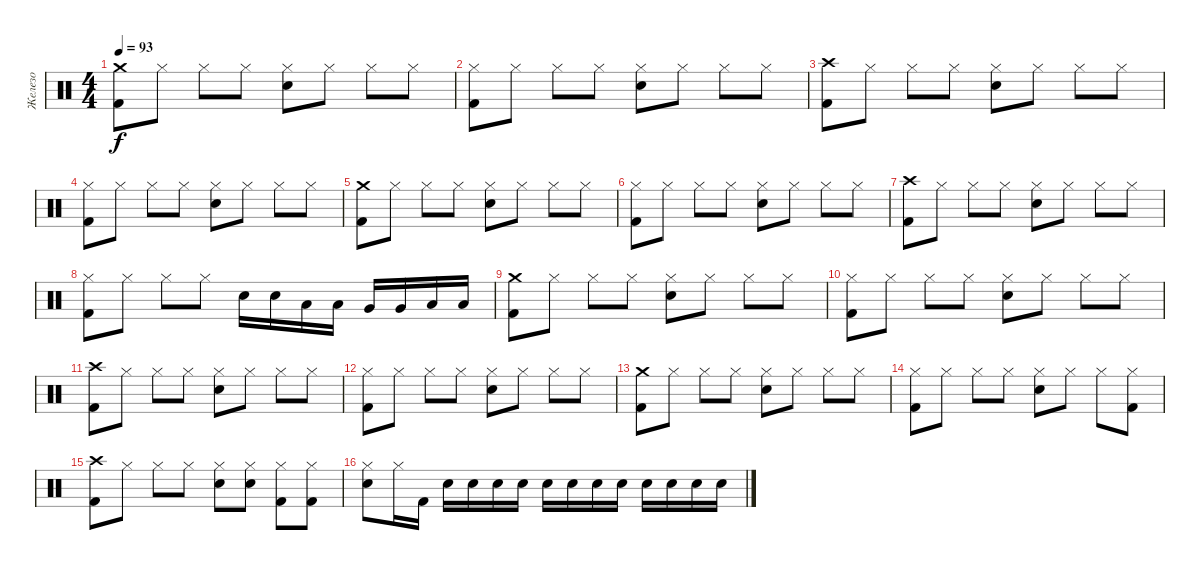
\track ("Железо" "Железо") {instrument percussion}
\staff {score}
\articulation defaults
\ts (4 4)
\tempo 93
\clef neutral
\ks c
("Crash medium (hit)" "Kick (hit) 2").8{dy f} "Hi-Hat (closed)".8 "Hi-Hat (closed)".8 "Hi-Hat (closed)".8 ("Hi-Hat (closed)" "Electric Snare (hit)").8 "Hi-Hat (closed)".8 "Hi-Hat (closed)".8 "Hi-Hat (closed)".8 |
("Hi-Hat (closed)" "Kick (hit) 2").8 "Hi-Hat (closed)".8 "Hi-Hat (closed)".8 "Hi-Hat (closed)".8 ("Hi-Hat (closed)" "Electric Snare (hit)").8 "Hi-Hat (closed)".8 "Hi-Hat (closed)".8 "Hi-Hat (closed)".8 |
("Crash high (hit)" "Kick (hit) 2").8 "Hi-Hat (closed)".8 "Hi-Hat (closed)".8 "Hi-Hat (closed)".8 ("Hi-Hat (closed)" "Electric Snare (hit)").8 "Hi-Hat (closed)".8 "Hi-Hat (closed)".8 "Hi-Hat (closed)".8 |
("Hi-Hat (closed)" "Kick (hit) 2").8 "Hi-Hat (closed)".8 "Hi-Hat (closed)".8 "Hi-Hat (closed)".8 ("Hi-Hat (closed)" "Electric Snare (hit)").8 "Hi-Hat (closed)".8 "Hi-Hat (closed)".8 "Hi-Hat (closed)".8 |
("Crash medium (hit)" "Kick (hit) 2").8 "Hi-Hat (closed)".8 "Hi-Hat (closed)".8 "Hi-Hat (closed)".8 ("Hi-Hat (closed)" "Electric Snare (hit)").8 "Hi-Hat (closed)".8 "Hi-Hat (closed)".8 "Hi-Hat (closed)".8 |
("Hi-Hat (closed)" "Kick (hit) 2").8 "Hi-Hat (closed)".8 "Hi-Hat (closed)".8 "Hi-Hat (closed)".8 ("Hi-Hat (closed)" "Electric Snare (hit)").8 "Hi-Hat (closed)".8 "Hi-Hat (closed)".8 "Hi-Hat (closed)".8 |
("Crash high (hit)" "Kick (hit) 2").8 "Hi-Hat (closed)".8 "Hi-Hat (closed)".8 "Hi-Hat (closed)".8 ("Hi-Hat (closed)" "Electric Snare (hit)").8 "Hi-Hat (closed)".8 "Hi-Hat (closed)".8 "Hi-Hat (closed)".8 |
("Hi-Hat (closed)" "Kick (hit) 2").8 "Hi-Hat (closed)".8 "Hi-Hat (closed)".8 "Hi-Hat (closed)".8 "Electric Snare (hit)".16 "Electric Snare (hit)".16 "Low Tom (hit)".16 "Low Tom (hit)".16 "Very Low Tom (hit)".16 "Very Low Tom (hit)".16 "Low Floor Tom (hit)".16 "Low Floor Tom (hit)".16 |
("Crash medium (hit)" "Kick (hit) 2").8 "Hi-Hat (closed)".8 "Hi-Hat (closed)".8 "Hi-Hat (closed)".8 ("Hi-Hat (closed)" "Electric Snare (hit)").8 "Hi-Hat (closed)".8 "Hi-Hat (closed)".8 "Hi-Hat (closed)".8 |
("Hi-Hat (closed)" "Kick (hit) 2").8 "Hi-Hat (closed)".8 "Hi-Hat (closed)".8 "Hi-Hat (closed)".8 ("Hi-Hat (closed)" "Electric Snare (hit)").8 "Hi-Hat (closed)".8 "Hi-Hat (closed)".8 "Hi-Hat (closed)".8 |
("Crash high (hit)" "Kick (hit) 2").8 "Hi-Hat (closed)".8 "Hi-Hat (closed)".8 "Hi-Hat (closed)".8 ("Hi-Hat (closed)" "Electric Snare (hit)").8 "Hi-Hat (closed)".8 "Hi-Hat (closed)".8 "Hi-Hat (closed)".8 |
("Hi-Hat (closed)" "Kick (hit) 2").8 "Hi-Hat (closed)".8 "Hi-Hat (closed)".8 "Hi-Hat (closed)".8 ("Hi-Hat (closed)" "Electric Snare (hit)").8 "Hi-Hat (closed)".8 "Hi-Hat (closed)".8 "Hi-Hat (closed)".8 |
("Crash medium (hit)" "Kick (hit) 2").8 "Hi-Hat (closed)".8 "Hi-Hat (closed)".8 "Hi-Hat (closed)".8 ("Hi-Hat (closed)" "Electric Snare (hit)").8 "Hi-Hat (closed)".8 "Hi-Hat (closed)".8 "Hi-Hat (closed)".8 |
("Hi-Hat (closed)" "Kick (hit) 2").8 "Hi-Hat (closed)".8 "Hi-Hat (closed)".8 "Hi-Hat (closed)".8 ("Hi-Hat (closed)" "Electric Snare (hit)").8 "Hi-Hat (closed)".8 "Hi-Hat (closed)".8 ("Hi-Hat (closed)" "Kick (hit) 2").8 |
("Crash high (hit)" "Kick (hit) 2").8 "Hi-Hat (closed)".8 "Hi-Hat (closed)".8 "Hi-Hat (closed)".8 ("Hi-Hat (closed)" "Electric Snare (hit)").8 ("Hi-Hat (closed)" "Electric Snare (hit)").8 ("Hi-Hat (closed)" "Kick (hit) 2").8 ("Hi-Hat (closed)" "Kick (hit) 2").8 |
("Hi-Hat (closed)" "Electric Snare (hit)").8 "Hi-Hat (closed)".16 "Kick (hit) 2".16 "Electric Snare (hit)".16 "Electric Snare (hit)".16 "Electric Snare (hit)".16 "Electric Snare (hit)".16 "Electric Snare (hit)".16 "Electric Snare (hit)".16 "Electric Snare (hit)".16 "Electric Snare (hit)".16 "Electric Snare (hit)".16 "Electric Snare (hit)".16 "Electric Snare (hit)".16 "Electric Snare (hit)".16
